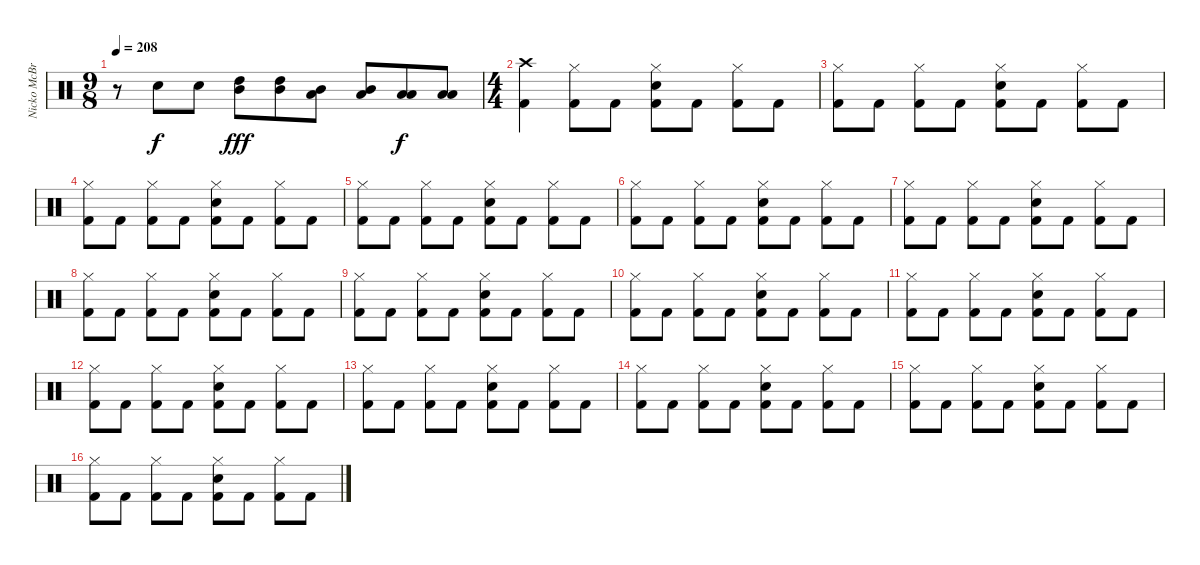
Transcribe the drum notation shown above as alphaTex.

\track ("Nicko McBrain" "Nicko McBr") {instrument percussion}
\staff {score}
\articulation defaults
\ts (9 8)
\tempo 208
\clef neutral
\ks c
r.8{dy f} "Electric Snare (hit)".8 "Electric Snare (hit)".8 ("High Tom (hit)" "Mid Tom (hit)").8{dy fff} ("High Tom (hit)" "Mid Tom (hit)").8 ("Low Tom (hit)" "Mid Tom (hit)").8 ("Low Tom (hit)" "Mid Tom (hit)").8 ("Low Tom (hit)" "Low Tom (hit)").8{dy f} ("Low Tom (hit)" "Low Tom (hit)").8 |
\ts (4 4)
("Crash high (hit)" "Kick (hit) 2").4 ("Hi-Hat (closed)" "Kick (hit) 2").8 "Kick (hit) 2".8 ("Hi-Hat (closed)" "Electric Snare (hit)" "Kick (hit) 2").8 "Kick (hit) 2".8 ("Hi-Hat (closed)" "Kick (hit) 2").8 "Kick (hit) 2".8 |
("Hi-Hat (closed)" "Kick (hit) 2").8 "Kick (hit) 2".8 ("Hi-Hat (closed)" "Kick (hit) 2").8 "Kick (hit) 2".8 ("Hi-Hat (closed)" "Electric Snare (hit)" "Kick (hit) 2").8 "Kick (hit) 2".8 ("Hi-Hat (closed)" "Kick (hit) 2").8 "Kick (hit) 2".8 |
("Hi-Hat (closed)" "Kick (hit) 2").8 "Kick (hit) 2".8 ("Hi-Hat (closed)" "Kick (hit) 2").8 "Kick (hit) 2".8 ("Hi-Hat (closed)" "Electric Snare (hit)" "Kick (hit) 2").8 "Kick (hit) 2".8 ("Hi-Hat (closed)" "Kick (hit) 2").8 "Kick (hit) 2".8 |
("Hi-Hat (closed)" "Kick (hit) 2").8 "Kick (hit) 2".8 ("Hi-Hat (closed)" "Kick (hit) 2").8 "Kick (hit) 2".8 ("Hi-Hat (closed)" "Electric Snare (hit)" "Kick (hit) 2").8 "Kick (hit) 2".8 ("Hi-Hat (closed)" "Kick (hit) 2").8 "Kick (hit) 2".8 |
("Hi-Hat (closed)" "Kick (hit) 2").8 "Kick (hit) 2".8 ("Hi-Hat (closed)" "Kick (hit) 2").8 "Kick (hit) 2".8 ("Hi-Hat (closed)" "Electric Snare (hit)" "Kick (hit) 2").8 "Kick (hit) 2".8 ("Hi-Hat (closed)" "Kick (hit) 2").8 "Kick (hit) 2".8 |
("Hi-Hat (closed)" "Kick (hit) 2").8 "Kick (hit) 2".8 ("Hi-Hat (closed)" "Kick (hit) 2").8 "Kick (hit) 2".8 ("Hi-Hat (closed)" "Electric Snare (hit)" "Kick (hit) 2").8 "Kick (hit) 2".8 ("Hi-Hat (closed)" "Kick (hit) 2").8 "Kick (hit) 2".8 |
("Hi-Hat (closed)" "Kick (hit) 2").8 "Kick (hit) 2".8 ("Hi-Hat (closed)" "Kick (hit) 2").8 "Kick (hit) 2".8 ("Hi-Hat (closed)" "Electric Snare (hit)" "Kick (hit) 2").8 "Kick (hit) 2".8 ("Hi-Hat (closed)" "Kick (hit) 2").8 "Kick (hit) 2".8 |
("Hi-Hat (closed)" "Kick (hit) 2").8 "Kick (hit) 2".8 ("Hi-Hat (closed)" "Kick (hit) 2").8 "Kick (hit) 2".8 ("Hi-Hat (closed)" "Electric Snare (hit)" "Kick (hit) 2").8 "Kick (hit) 2".8 ("Hi-Hat (closed)" "Kick (hit) 2").8 "Kick (hit) 2".8 |
("Hi-Hat (closed)" "Kick (hit) 2").8 "Kick (hit) 2".8 ("Hi-Hat (closed)" "Kick (hit) 2").8 "Kick (hit) 2".8 ("Hi-Hat (closed)" "Electric Snare (hit)" "Kick (hit) 2").8 "Kick (hit) 2".8 ("Hi-Hat (closed)" "Kick (hit) 2").8 "Kick (hit) 2".8 |
("Hi-Hat (closed)" "Kick (hit) 2").8 "Kick (hit) 2".8 ("Hi-Hat (closed)" "Kick (hit) 2").8 "Kick (hit) 2".8 ("Hi-Hat (closed)" "Electric Snare (hit)" "Kick (hit) 2").8 "Kick (hit) 2".8 ("Hi-Hat (closed)" "Kick (hit) 2").8 "Kick (hit) 2".8 |
("Hi-Hat (closed)" "Kick (hit) 2").8 "Kick (hit) 2".8 ("Hi-Hat (closed)" "Kick (hit) 2").8 "Kick (hit) 2".8 ("Hi-Hat (closed)" "Electric Snare (hit)" "Kick (hit) 2").8 "Kick (hit) 2".8 ("Hi-Hat (closed)" "Kick (hit) 2").8 "Kick (hit) 2".8 |
("Hi-Hat (closed)" "Kick (hit) 2").8 "Kick (hit) 2".8 ("Hi-Hat (closed)" "Kick (hit) 2").8 "Kick (hit) 2".8 ("Hi-Hat (closed)" "Electric Snare (hit)" "Kick (hit) 2").8 "Kick (hit) 2".8 ("Hi-Hat (closed)" "Kick (hit) 2").8 "Kick (hit) 2".8 |
("Hi-Hat (closed)" "Kick (hit) 2").8 "Kick (hit) 2".8 ("Hi-Hat (closed)" "Kick (hit) 2").8 "Kick (hit) 2".8 ("Hi-Hat (closed)" "Electric Snare (hit)" "Kick (hit) 2").8 "Kick (hit) 2".8 ("Hi-Hat (closed)" "Kick (hit) 2").8 "Kick (hit) 2".8 |
("Hi-Hat (closed)" "Kick (hit) 2").8 "Kick (hit) 2".8 ("Hi-Hat (closed)" "Kick (hit) 2").8 "Kick (hit) 2".8 ("Hi-Hat (closed)" "Electric Snare (hit)" "Kick (hit) 2").8 "Kick (hit) 2".8 ("Hi-Hat (closed)" "Kick (hit) 2").8 "Kick (hit) 2".8 |
("Hi-Hat (closed)" "Kick (hit) 2").8 "Kick (hit) 2".8 ("Hi-Hat (closed)" "Kick (hit) 2").8 "Kick (hit) 2".8 ("Hi-Hat (closed)" "Electric Snare (hit)" "Kick (hit) 2").8 "Kick (hit) 2".8 ("Hi-Hat (closed)" "Kick (hit) 2").8 "Kick (hit) 2".8
